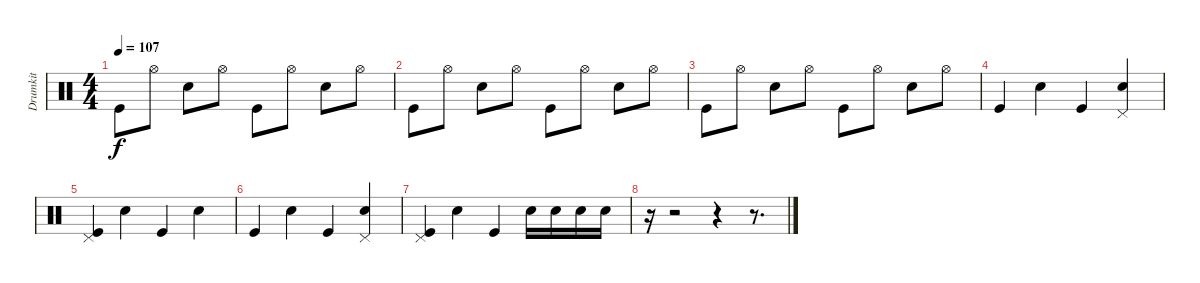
\track ("Drumkit" "Drumkit") {instrument percussion}
\staff {score}
\articulation defaults
\ts (4 4)
\tempo 107
\clef neutral
\ks c "Kick (hit)".8{dy f} "Hi-Hat (open)".8 "Snare (hit) 2".8 "Hi-Hat (open)".8 "Kick (hit)".8 "Hi-Hat (open)".8 "Snare (hit) 2".8 "Hi-Hat (open)".8
|
"Kick (hit)".8 "Hi-Hat (open)".8 "Snare (hit) 2".8 "Hi-Hat (open)".8 "Kick (hit)".8 "Hi-Hat (open)".8 "Snare (hit) 2".8 "Hi-Hat (open)".8 |
"Kick (hit)".8 "Hi-Hat (open)".8 "Snare (hit) 2".8 "Hi-Hat (open)".8 "Kick (hit)".8 "Hi-Hat (open)".8 "Snare (hit) 2".8 "Hi-Hat (open)".8 |
"Kick (hit)".4 "Snare (hit) 2".4 "Kick (hit)".4 ("Pedal Hi-Hat (hit)" "Snare (hit) 2").4 |
("Pedal Hi-Hat (hit)" "Kick (hit)").4 "Snare (hit) 2".4 "Kick (hit)".4 "Snare (hit) 2".4 |
"Kick (hit)".4 "Snare (hit) 2".4 "Kick (hit)".4 ("Pedal Hi-Hat (hit)" "Snare (hit) 2").4 |
("Pedal Hi-Hat (hit)" "Kick (hit)").4 "Snare (hit) 2".4 "Kick (hit)".4 "Snare (hit) 2".16 "Snare (hit) 2".16 "Snare (hit) 2".16 "Snare (hit) 2".16 |
r.16 r.2 r.4 r.8{d}
